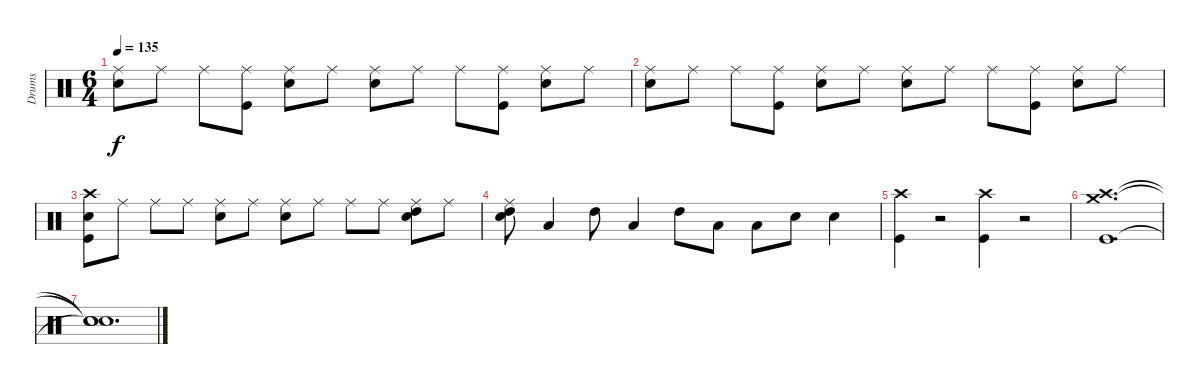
\track ("Drums" "Drums") {instrument percussion}
\staff {score}
\articulation defaults
\ts (6 4)
\tempo 135
\clef neutral
\ks c
("Electric Snare (hit)" "Ride (middle)").8{dy f} "Ride (middle)".8 "Ride (middle)".8 ("Kick (hit)" "Ride (middle)").8 ("Ride (middle)" "Electric Snare (hit)").8 "Ride (middle)".8 ("Ride (middle)" "Electric Snare (hit)").8 "Ride (middle)".8 "Ride (middle)".8 ("Kick (hit)" "Ride (middle)").8 ("Electric Snare (hit)" "Ride (middle)").8 "Ride (middle)".8 |
("Ride (middle)" "Electric Snare (hit)").8 "Ride (middle)".8 "Ride (middle)".8 ("Kick (hit)" "Ride (middle)").8 ("Electric Snare (hit)" "Ride (middle)").8 "Ride (middle)".8 ("Electric Snare (hit)" "Ride (middle)").8 "Ride (middle)".8 "Ride (middle)".8 ("Kick (hit)" "Ride (middle)").8 ("Electric Snare (hit)" "Ride (middle)").8 "Ride (middle)".8 |
("Crash high (hit)" "Kick (hit)" "Electric Snare (hit)").8 "Ride (middle)".8 "Ride (middle)".8 "Ride (middle)".8 ("Electric Snare (hit)" "Ride (middle)").8 "Ride (middle)".8 ("Electric Snare (hit)" "Ride (middle)").8 "Ride (middle)".8 "Ride (middle)".8 "Ride (middle)".8 ("Electric Snare (hit)" "High Tom (hit)" "Ride (middle)").8 "Ride (middle)".8 |
("Electric Snare (hit)" "Ride (middle)" "High Tom (hit)").8 "Low Tom (hit)".4 "High Tom (hit)".8 "Low Tom (hit)".4 "High Tom (hit)".8 "Low Tom (hit)".8 "Low Tom (hit)".8 "Electric Snare (hit)".8 "Electric Snare (hit)".4 |
("Crash high (hit)" "Kick (hit)").4 r.2 ("Kick (hit)" "Crash high (hit)").4 r.2 |
("Crash medium (hit)" "Crash high (hit)" "Kick (hit)").1{d} |
("Snare (hit)"{t} "Snare (hit)"{t} "Snare (hit)"{t}).1{d}
